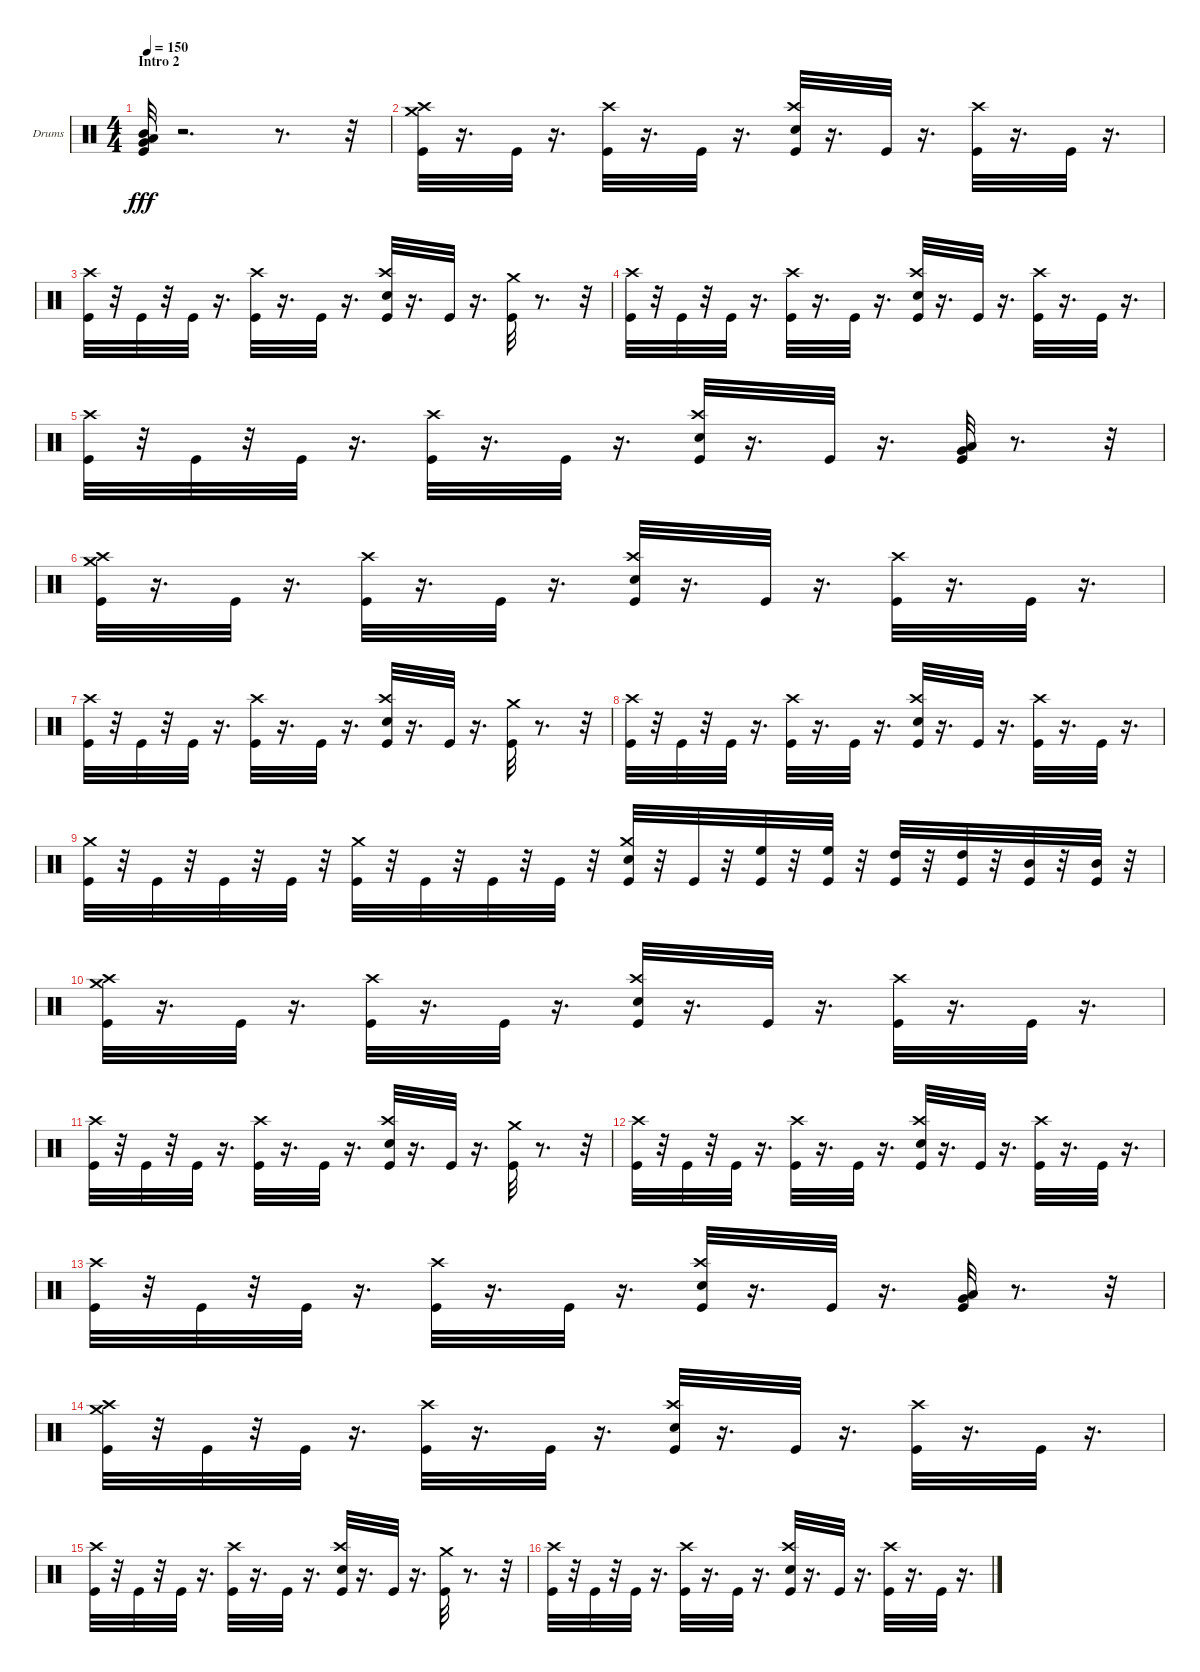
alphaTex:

\bracketExtendMode groupsimilarinstruments
\firstSystemTrackNameOrientation horizontal
\otherSystemsTrackNameOrientation horizontal
\track ("Dave McClain" "Drums") {mute instrument percussion}
\staff {score}
\articulation defaults
\ts (4 4)
\section ("" "Intro 2")
\tempo 150
\clef neutral
\ks c
("Mid Tom (hit)" "Low Tom (hit)" "Very Low Tom (hit)" "Kick (hit)").32{dy fff} r.2{d} r.8{d} r.32 |
("Crash high (hit)" "Crash medium (hit)" "Kick (hit)").32 r.16{d} "Kick (hit)".32 r.16{d} ("Crash high (hit)" "Kick (hit)").32 r.16{d} "Kick (hit)".32 r.16{d} ("Snare (hit) 2" "Crash high (hit)" "Kick (hit)").32 r.16{d} "Kick (hit)".32 r.16{d} ("Crash high (hit)" "Kick (hit)").32 r.16{d} "Kick (hit)".32 r.16{d} |
("Crash high (hit)" "Kick (hit)").32 r.32 "Kick (hit)".32 r.32 "Kick (hit)".32 r.16{d} ("Crash high (hit)" "Kick (hit)").32 r.16{d} "Kick (hit)".32 r.16{d} ("Snare (hit) 2" "Crash high (hit)" "Kick (hit)").32 r.16{d} "Kick (hit)".32 r.16{d} ("Crash medium (hit)" "Kick (hit)").32 r.8{d} r.32 |
("Crash high (hit)" "Kick (hit)").32 r.32 "Kick (hit)".32 r.32 "Kick (hit)".32 r.16{d} ("Kick (hit)" "Crash high (hit)").32 r.16{d} "Kick (hit)".32 r.16{d} ("Snare (hit) 2" "Kick (hit)" "Crash high (hit)").32 r.16{d} "Kick (hit)".32 r.16{d} ("Crash high (hit)" "Kick (hit)").32 r.16{d} "Kick (hit)".32 r.16{d} |
("Crash high (hit)" "Kick (hit)").32 r.32 "Kick (hit)".32 r.32 "Kick (hit)".32 r.16{d} ("Crash high (hit)" "Kick (hit)").32 r.16{d} "Kick (hit)".32 r.16{d} ("Snare (hit) 2" "Crash high (hit)" "Kick (hit)").32 r.16{d} "Kick (hit)".32 r.16{d} ("Very Low Tom (hit)" "Low Tom (hit)" "Kick (hit)").32 r.8{d} r.32 |
("Crash high (hit)" "Crash medium (hit)" "Kick (hit)").32 r.16{d} "Kick (hit)".32 r.16{d} ("Crash high (hit)" "Kick (hit)").32 r.16{d} "Kick (hit)".32 r.16{d} ("Snare (hit) 2" "Crash high (hit)" "Kick (hit)").32 r.16{d} "Kick (hit)".32 r.16{d} ("Crash high (hit)" "Kick (hit)").32 r.16{d} "Kick (hit)".32 r.16{d} |
("Crash high (hit)" "Kick (hit)").32 r.32 "Kick (hit)".32 r.32 "Kick (hit)".32 r.16{d} ("Crash high (hit)" "Kick (hit)").32 r.16{d} "Kick (hit)".32 r.16{d} ("Snare (hit) 2" "Crash high (hit)" "Kick (hit)").32 r.16{d} "Kick (hit)".32 r.16{d} ("Crash medium (hit)" "Kick (hit)").32 r.8{d} r.32 |
("Crash high (hit)" "Kick (hit)").32 r.32 "Kick (hit)".32 r.32 "Kick (hit)".32 r.16{d} ("Kick (hit)" "Crash high (hit)").32 r.16{d} "Kick (hit)".32 r.16{d} ("Snare (hit) 2" "Kick (hit)" "Crash high (hit)").32 r.16{d} "Kick (hit)".32 r.16{d} ("Crash high (hit)" "Kick (hit)").32 r.16{d} "Kick (hit)".32 r.16{d} |
("Crash medium (hit)" "Kick (hit)").32 r.32 "Kick (hit)".32 r.32 "Kick (hit)".32 r.32 "Kick (hit)".32 r.32 ("Crash medium (hit)" "Kick (hit)").32 r.32 "Kick (hit)".32 r.32 "Kick (hit)".32 r.32 "Kick (hit)".32 r.32 ("Crash medium (hit)" "Snare (hit) 2" "Kick (hit)").32 r.32 "Kick (hit)".32 r.32 ("High Floor Tom (hit)" "Kick (hit)").32 r.32 ("High Floor Tom (hit)" "Kick (hit)").32 r.32 ("High Tom (hit)" "Kick (hit)").32 r.32 ("High Tom (hit)" "Kick (hit)").32 r.32 ("Mid Tom (hit)" "Kick (hit)").32 r.32 ("Mid Tom (hit)" "Kick (hit)").32 r.32 |
("Crash high (hit)" "Crash medium (hit)" "Kick (hit)").32 r.16{d} "Kick (hit)".32 r.16{d} ("Crash high (hit)" "Kick (hit)").32 r.16{d} "Kick (hit)".32 r.16{d} ("Snare (hit) 2" "Crash high (hit)" "Kick (hit)").32 r.16{d} "Kick (hit)".32 r.16{d} ("Crash high (hit)" "Kick (hit)").32 r.16{d} "Kick (hit)".32 r.16{d} |
("Crash high (hit)" "Kick (hit)").32 r.32 "Kick (hit)".32 r.32 "Kick (hit)".32 r.16{d} ("Crash high (hit)" "Kick (hit)").32 r.16{d} "Kick (hit)".32 r.16{d} ("Snare (hit) 2" "Crash high (hit)" "Kick (hit)").32 r.16{d} "Kick (hit)".32 r.16{d} ("Crash medium (hit)" "Kick (hit)").32 r.8{d} r.32 |
("Crash high (hit)" "Kick (hit)").32 r.32 "Kick (hit)".32 r.32 "Kick (hit)".32 r.16{d} ("Kick (hit)" "Crash high (hit)").32 r.16{d} "Kick (hit)".32 r.16{d} ("Snare (hit) 2" "Kick (hit)" "Crash high (hit)").32 r.16{d} "Kick (hit)".32 r.16{d} ("Crash high (hit)" "Kick (hit)").32 r.16{d} "Kick (hit)".32 r.16{d} |
("Crash high (hit)" "Kick (hit)").32 r.32 "Kick (hit)".32 r.32 "Kick (hit)".32 r.16{d} ("Crash high (hit)" "Kick (hit)").32 r.16{d} "Kick (hit)".32 r.16{d} ("Snare (hit) 2" "Crash high (hit)" "Kick (hit)").32 r.16{d} "Kick (hit)".32 r.16{d} ("Very Low Tom (hit)" "Low Tom (hit)" "Kick (hit)").32 r.8{d} r.32 |
("Crash high (hit)" "Crash medium (hit)" "Kick (hit)").32 r.32 "Kick (hit)".32 r.32 "Kick (hit)".32 r.16{d} ("Crash high (hit)" "Kick (hit)").32 r.16{d} "Kick (hit)".32 r.16{d} ("Snare (hit) 2" "Crash high (hit)" "Kick (hit)").32 r.16{d} "Kick (hit)".32 r.16{d} ("Crash high (hit)" "Kick (hit)").32 r.16{d} "Kick (hit)".32 r.16{d} |
("Crash high (hit)" "Kick (hit)").32 r.32 "Kick (hit)".32 r.32 "Kick (hit)".32 r.16{d} ("Crash high (hit)" "Kick (hit)").32 r.16{d} "Kick (hit)".32 r.16{d} ("Snare (hit) 2" "Crash high (hit)" "Kick (hit)").32 r.16{d} "Kick (hit)".32 r.16{d} ("Crash medium (hit)" "Kick (hit)").32 r.8{d} r.32 |
("Crash high (hit)" "Kick (hit)").32 r.32 "Kick (hit)".32 r.32 "Kick (hit)".32 r.16{d} ("Kick (hit)" "Crash high (hit)").32 r.16{d} "Kick (hit)".32 r.16{d} ("Snare (hit) 2" "Kick (hit)" "Crash high (hit)").32 r.16{d} "Kick (hit)".32 r.16{d} ("Crash high (hit)" "Kick (hit)").32 r.16{d} "Kick (hit)".32 r.16{d}
